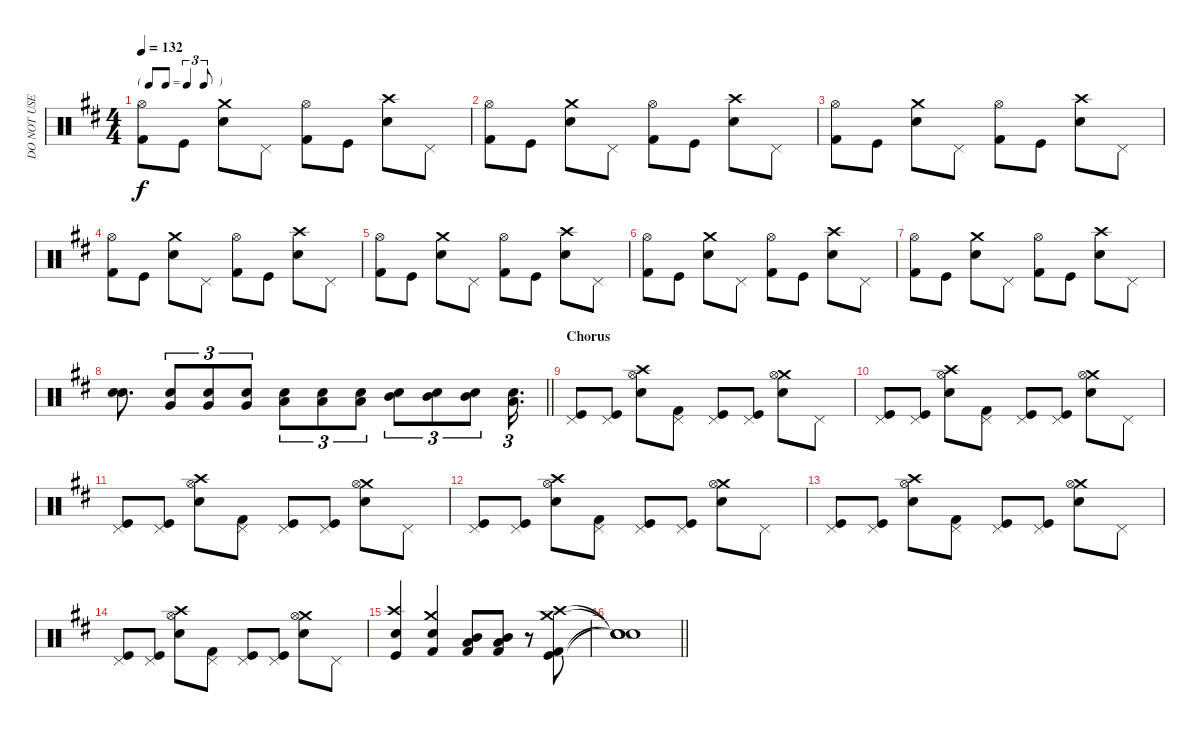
\track ("DO NOT USE" "DO NOT USE") {solo instrument percussion}
\staff {score}
\articulation defaults
\ts (4 4)
\tf triplet8th
\tempo 132
\clef neutral
\ks d
("Hi-Hat (open)" "Kick (hit) 2").8{dy f} "Kick (hit)".8 ("Crash medium (hit)" "Electric Snare (hit)").8 "Pedal Hi-Hat (hit)".8 ("Hi-Hat (open)" "Kick (hit) 2").8 "Kick (hit)".8 ("Crash high (hit)" "Electric Snare (hit)").8 "Pedal Hi-Hat (hit)".8 |
("Hi-Hat (open)" "Kick (hit) 2").8 "Kick (hit)".8 ("Crash medium (hit)" "Electric Snare (hit)").8 "Pedal Hi-Hat (hit)".8 ("Hi-Hat (open)" "Kick (hit) 2").8 "Kick (hit)".8 ("Crash high (hit)" "Electric Snare (hit)").8 "Pedal Hi-Hat (hit)".8 |
("Hi-Hat (open)" "Kick (hit) 2").8 "Kick (hit)".8 ("Crash medium (hit)" "Electric Snare (hit)").8 "Pedal Hi-Hat (hit)".8 ("Hi-Hat (open)" "Kick (hit) 2").8 "Kick (hit)".8 ("Crash high (hit)" "Electric Snare (hit)").8 "Pedal Hi-Hat (hit)".8 |
("Hi-Hat (open)" "Kick (hit) 2").8 "Kick (hit)".8 ("Crash medium (hit)" "Electric Snare (hit)").8 "Pedal Hi-Hat (hit)".8 ("Hi-Hat (open)" "Kick (hit) 2").8 "Kick (hit)".8 ("Crash high (hit)" "Electric Snare (hit)").8 "Pedal Hi-Hat (hit)".8 |
("Hi-Hat (open)" "Kick (hit) 2").8 "Kick (hit)".8 ("Crash medium (hit)" "Electric Snare (hit)").8 "Pedal Hi-Hat (hit)".8 ("Hi-Hat (open)" "Kick (hit) 2").8 "Kick (hit)".8 ("Crash high (hit)" "Electric Snare (hit)").8 "Pedal Hi-Hat (hit)".8 |
("Hi-Hat (open)" "Kick (hit) 2").8 "Kick (hit)".8 ("Crash medium (hit)" "Electric Snare (hit)").8 "Pedal Hi-Hat (hit)".8 ("Hi-Hat (open)" "Kick (hit) 2").8 "Kick (hit)".8 ("Crash high (hit)" "Electric Snare (hit)").8 "Pedal Hi-Hat (hit)".8 |
("Hi-Hat (open)" "Kick (hit) 2").8 "Kick (hit)".8 ("Crash medium (hit)" "Electric Snare (hit)").8 "Pedal Hi-Hat (hit)".8 ("Hi-Hat (open)" "Kick (hit) 2").8 "Kick (hit)".8 ("Crash high (hit)" "Electric Snare (hit)").8 "Pedal Hi-Hat (hit)".8 |
\barLineRight lightlight
("Snare (hit) 2" "Electric Snare (hit)").8{d} ("Electric Snare (hit)" "Very Low Tom (hit)").8{tu (3 2)} ("Electric Snare (hit)" "Very Low Tom (hit)").8{tu (3 2)} ("Electric Snare (hit)" "Very Low Tom (hit)").8{tu (3 2)} ("Snare (hit) 2" "Low Tom (hit)").8{tu (3 2)} ("Snare (hit) 2" "Low Tom (hit)").8{tu (3 2)} ("Snare (hit) 2" "Low Tom (hit)").8{tu (3 2)} ("Electric Snare (hit)" "Mid Tom (hit)").8{tu (3 2)} ("Electric Snare (hit)" "Mid Tom (hit)").8{tu (3 2)} ("Electric Snare (hit)" "Mid Tom (hit)").8{tu (3 2)} ("Electric Snare (hit)" "Low Floor Tom (hit)").16{d tu (3 2)} |
\section ("" "Chorus")
("Kick (hit)" "Pedal Hi-Hat (hit)").8 ("Kick (hit)" "Pedal Hi-Hat (hit)").8 ("Crash high (hit)" "Snare (hit) 2" "Hi-Hat (open)").8 ("Kick (hit) 2" "Pedal Hi-Hat (hit)").8 ("Kick (hit)" "Pedal Hi-Hat (hit)").8 ("Kick (hit)" "Pedal Hi-Hat (hit)").8 ("Crash medium (hit)" "Electric Snare (hit)" "Hi-Hat (open)").8 "Pedal Hi-Hat (hit)".8 |
("Kick (hit)" "Pedal Hi-Hat (hit)").8 ("Kick (hit)" "Pedal Hi-Hat (hit)").8 ("Crash high (hit)" "Snare (hit) 2" "Hi-Hat (open)").8 ("Kick (hit) 2" "Pedal Hi-Hat (hit)").8 ("Kick (hit)" "Pedal Hi-Hat (hit)").8 ("Kick (hit)" "Pedal Hi-Hat (hit)").8 ("Crash medium (hit)" "Electric Snare (hit)" "Hi-Hat (open)").8 "Pedal Hi-Hat (hit)".8 |
("Kick (hit)" "Pedal Hi-Hat (hit)").8 ("Kick (hit)" "Pedal Hi-Hat (hit)").8 ("Crash high (hit)" "Snare (hit) 2" "Hi-Hat (open)").8 ("Kick (hit) 2" "Pedal Hi-Hat (hit)").8 ("Kick (hit)" "Pedal Hi-Hat (hit)").8 ("Kick (hit)" "Pedal Hi-Hat (hit)").8 ("Crash medium (hit)" "Electric Snare (hit)" "Hi-Hat (open)").8 "Pedal Hi-Hat (hit)".8 |
("Kick (hit)" "Pedal Hi-Hat (hit)").8 ("Kick (hit)" "Pedal Hi-Hat (hit)").8 ("Crash high (hit)" "Snare (hit) 2" "Hi-Hat (open)").8 ("Kick (hit) 2" "Pedal Hi-Hat (hit)").8 ("Kick (hit)" "Pedal Hi-Hat (hit)").8 ("Kick (hit)" "Pedal Hi-Hat (hit)").8 ("Crash medium (hit)" "Electric Snare (hit)" "Hi-Hat (open)").8 "Pedal Hi-Hat (hit)".8 |
("Kick (hit)" "Pedal Hi-Hat (hit)").8 ("Kick (hit)" "Pedal Hi-Hat (hit)").8 ("Crash high (hit)" "Snare (hit) 2" "Hi-Hat (open)").8 ("Kick (hit) 2" "Pedal Hi-Hat (hit)").8 ("Kick (hit)" "Pedal Hi-Hat (hit)").8 ("Kick (hit)" "Pedal Hi-Hat (hit)").8 ("Crash medium (hit)" "Electric Snare (hit)" "Hi-Hat (open)").8 "Pedal Hi-Hat (hit)".8 |
("Kick (hit)" "Pedal Hi-Hat (hit)").8 ("Kick (hit)" "Pedal Hi-Hat (hit)").8 ("Crash high (hit)" "Snare (hit) 2" "Hi-Hat (open)").8 ("Kick (hit) 2" "Pedal Hi-Hat (hit)").8 ("Kick (hit)" "Pedal Hi-Hat (hit)").8 ("Kick (hit)" "Pedal Hi-Hat (hit)").8 ("Crash medium (hit)" "Electric Snare (hit)" "Hi-Hat (open)").8 "Pedal Hi-Hat (hit)".8 |
("Crash high (hit)" "Snare (hit) 2" "Kick (hit)").4 ("Crash medium (hit)" "Electric Snare (hit)" "Kick (hit) 2").4 ("Kick (hit) 2" "Mid Tom (hit)" "Low Tom (hit)").8 ("Kick (hit) 2" "Mid Tom (hit)" "Low Tom (hit)").8 r.8 ("Kick (hit)" "Crash high (hit)" "Crash medium (hit)" "Kick (hit) 2").8 |
\barLineRight lightlight
("Snare (hit)"{t} "Snare (hit)"{t} "Snare (hit)"{t} "Snare (hit)"{t}).1
